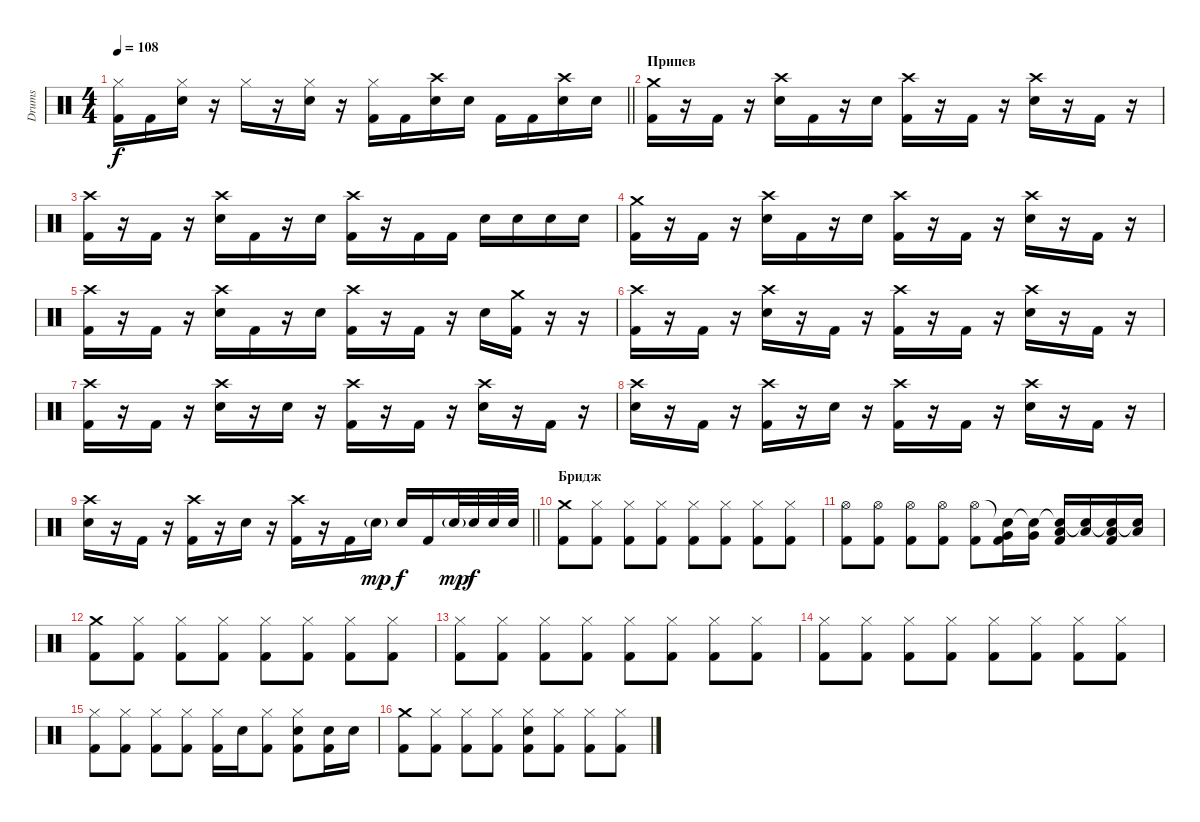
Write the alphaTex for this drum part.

\track ("Drums" "Drums") {instrument percussion}
\staff {score}
\articulation defaults
\ts (4 4)
\tempo 108
\clef neutral
\barLineRight lightlight
\ks c
("Hi-Hat (closed)" "Kick (hit) 2").16{dy f} "Kick (hit) 2".16 ("Hi-Hat (closed)" "Electric Snare (hit)").16 r.16 "Hi-Hat (closed)".16 r.16 ("Hi-Hat (closed)" "Electric Snare (hit)").16 r.16 ("Hi-Hat (closed)" "Kick (hit) 2").16 "Kick (hit) 2".16 ("Crash high (hit)" "Electric Snare (hit)").16 "Electric Snare (hit)".16 "Kick (hit) 2".16 "Kick (hit) 2".16 ("Crash high (hit)" "Electric Snare (hit)").16 "Electric Snare (hit)".16 |
\section ("" "Припев")
("Crash medium (hit)" "Kick (hit) 2").16 r.16 "Kick (hit) 2".16 r.16 ("Crash high (hit)" "Electric Snare (hit)").16 "Kick (hit) 2".16 r.16 "Electric Snare (hit)".16 ("Crash high (hit)" "Kick (hit) 2").16 r.16 "Kick (hit) 2".16 r.16 ("Crash high (hit)" "Electric Snare (hit)").16 r.16 "Kick (hit) 2".16 r.16 |
("Crash high (hit)" "Kick (hit) 2").16 r.16 "Kick (hit) 2".16 r.16 ("Crash high (hit)" "Electric Snare (hit)").16 "Kick (hit) 2".16 r.16 "Electric Snare (hit)".16 ("Crash high (hit)" "Kick (hit) 2").16 r.16 "Kick (hit) 2".16 "Kick (hit) 2".16 "Electric Snare (hit)".16 "Electric Snare (hit)".16 "Electric Snare (hit)".16 "Electric Snare (hit)".16 |
("Crash medium (hit)" "Kick (hit) 2").16 r.16 "Kick (hit) 2".16 r.16 ("Crash high (hit)" "Electric Snare (hit)").16 "Kick (hit) 2".16 r.16 "Electric Snare (hit)".16 ("Crash high (hit)" "Kick (hit) 2").16 r.16 "Kick (hit) 2".16 r.16 ("Crash high (hit)" "Electric Snare (hit)").16 r.16 "Kick (hit) 2".16 r.16 |
("Crash high (hit)" "Kick (hit) 2").16 r.16 "Kick (hit) 2".16 r.16 ("Crash high (hit)" "Electric Snare (hit)").16 "Kick (hit) 2".16 r.16 "Electric Snare (hit)".16 ("Crash high (hit)" "Kick (hit) 2").16 r.16 "Kick (hit) 2".16 r.16 "Electric Snare (hit)".16 ("Crash medium (hit)" "Kick (hit) 2").16 r.16 r.16 |
("Crash high (hit)" "Kick (hit) 2").16 r.16 "Kick (hit) 2".16 r.16 ("Crash high (hit)" "Electric Snare (hit)").16 r.16 "Kick (hit) 2".16 r.16 ("Crash high (hit)" "Kick (hit) 2").16 r.16 "Kick (hit) 2".16 r.16 ("Crash high (hit)" "Electric Snare (hit)").16 r.16 "Kick (hit) 2".16 r.16 |
("Crash high (hit)" "Kick (hit) 2").16 r.16 "Kick (hit) 2".16 r.16 ("Crash high (hit)" "Electric Snare (hit)").16 r.16 "Electric Snare (hit)".16 r.16 ("Crash high (hit)" "Kick (hit) 2").16 r.16 "Kick (hit) 2".16 r.16 ("Crash high (hit)" "Electric Snare (hit)").16 r.16 "Kick (hit) 2".16 r.16 |
("Crash high (hit)" "Electric Snare (hit)").16 r.16 "Kick (hit) 2".16 r.16 ("Crash high (hit)" "Kick (hit) 2").16 r.16 "Electric Snare (hit)".16 r.16 ("Crash high (hit)" "Kick (hit) 2").16 r.16 "Kick (hit) 2".16 r.16 ("Crash high (hit)" "Electric Snare (hit)").16 r.16 "Kick (hit) 2".16 r.16 |
\barLineRight lightlight
("Crash high (hit)" "Electric Snare (hit)").16 r.16 "Kick (hit) 2".16 r.16 ("Crash high (hit)" "Kick (hit) 2").16 r.16 "Electric Snare (hit)".16 r.16 ("Crash high (hit)" "Kick (hit) 2").16 r.16 "Kick (hit) 2".16 "Electric Snare (hit)"{g}.16{dy mp} "Electric Snare (hit)".16{dy f} "Kick (hit) 2".16 "Electric Snare (hit)"{g}.32{dy mp} "Electric Snare (hit)".32{dy f} "Electric Snare (hit)".32 "Electric Snare (hit)".32 |
\section ("" "Бридж")
("Crash medium (hit)" "Kick (hit) 2").8 ("Hi-Hat (closed)" "Kick (hit) 2").8 ("Hi-Hat (closed)" "Kick (hit) 2").8 ("Hi-Hat (closed)" "Kick (hit) 2").8 ("Hi-Hat (closed)" "Kick (hit) 2").8 ("Hi-Hat (closed)" "Kick (hit) 2").8 ("Hi-Hat (closed)" "Kick (hit) 2").8 ("Hi-Hat (closed)" "Kick (hit) 2").8 |
("Hi-Hat (open)" "Kick (hit) 2").8 ("Hi-Hat (open)" "Kick (hit) 2").8 ("Hi-Hat (open)" "Kick (hit) 2").8 ("Hi-Hat (open)" "Kick (hit) 2").8 ("Hi-Hat (open)" "Kick (hit) 2").8 ("Snare (hit)"{t} "Very Low Tom (hit)" "Kick (hit) 2").16 ("Snare (hit)"{t} "Very Low Tom (hit)").16 ("Snare (hit)"{t} "Low Floor Tom (hit)" "Kick (hit) 2").16 ("Snare (hit)"{t} "Low Floor Tom (hit)").16 ("Snare (hit)"{t} "Low Floor Tom (hit)" "Kick (hit) 2").16 ("Snare (hit)"{t} "Low Floor Tom (hit)").16 |
("Crash medium (hit)" "Kick (hit) 2").8 ("Hi-Hat (closed)" "Kick (hit) 2").8 ("Hi-Hat (closed)" "Kick (hit) 2").8 ("Hi-Hat (closed)" "Kick (hit) 2").8 ("Hi-Hat (closed)" "Kick (hit) 2").8 ("Hi-Hat (closed)" "Kick (hit) 2").8 ("Hi-Hat (closed)" "Kick (hit) 2").8 ("Hi-Hat (closed)" "Kick (hit) 2").8 |
("Hi-Hat (closed)" "Kick (hit) 2").8 ("Hi-Hat (closed)" "Kick (hit) 2").8 ("Hi-Hat (closed)" "Kick (hit) 2").8 ("Hi-Hat (closed)" "Kick (hit) 2").8 ("Hi-Hat (closed)" "Kick (hit) 2").8 ("Hi-Hat (closed)" "Kick (hit) 2").8 ("Hi-Hat (closed)" "Kick (hit) 2").8 ("Hi-Hat (closed)" "Kick (hit) 2").8 |
("Hi-Hat (closed)" "Kick (hit) 2").8 ("Hi-Hat (closed)" "Kick (hit) 2").8 ("Hi-Hat (closed)" "Kick (hit) 2").8 ("Hi-Hat (closed)" "Kick (hit) 2").8 ("Hi-Hat (closed)" "Kick (hit) 2").8 ("Hi-Hat (closed)" "Kick (hit) 2").8 ("Hi-Hat (closed)" "Kick (hit) 2").8 ("Hi-Hat (closed)" "Kick (hit) 2").8 |
("Hi-Hat (closed)" "Kick (hit) 2").8 ("Hi-Hat (closed)" "Kick (hit) 2").8 ("Hi-Hat (closed)" "Kick (hit) 2").8 ("Hi-Hat (closed)" "Kick (hit) 2").8 ("Hi-Hat (closed)" "Kick (hit) 2").16 "Electric Snare (hit)".16 ("Hi-Hat (closed)" "Kick (hit) 2").8 ("Hi-Hat (closed)" "Electric Snare (hit)" "Kick (hit) 2").8 ("Electric Snare (hit)" "Kick (hit) 2").16 "Electric Snare (hit)".16 |
("Crash medium (hit)" "Kick (hit) 2").8 ("Hi-Hat (closed)" "Kick (hit) 2").8 ("Hi-Hat (closed)" "Kick (hit) 2").8 ("Hi-Hat (closed)" "Kick (hit) 2").8 ("Hi-Hat (closed)" "Electric Snare (hit)" "Kick (hit) 2").8 ("Hi-Hat (closed)" "Kick (hit) 2").8 ("Hi-Hat (closed)" "Kick (hit) 2").8 ("Hi-Hat (closed)" "Kick (hit) 2").8
